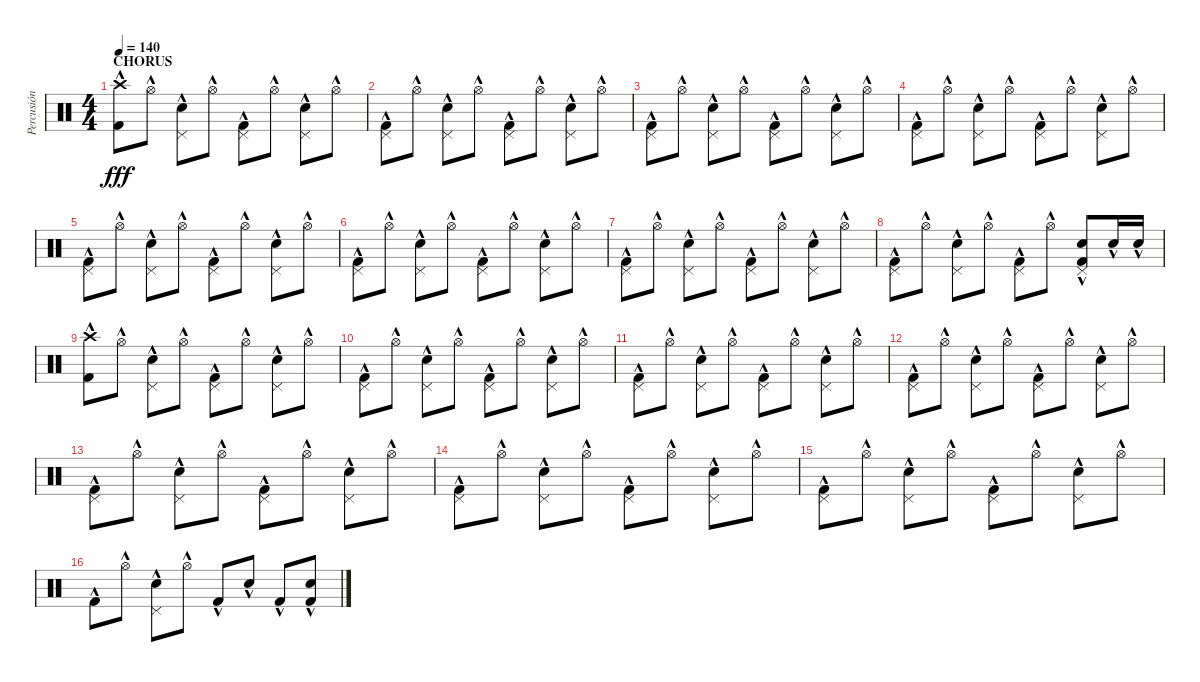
\track ("Percusión" "Percusión") {instrument percussion}
\staff {score}
\articulation defaults
\ts (4 4)
\section ("" "CHORUS")
\tempo 140
\clef neutral
\ks c
("Crash high (hit)"{hac} "Kick (hit) 2"{hac}).8{dy fff} "Hi-Hat (open)"{hac}.8 ("Snare (hit) 2"{hac} "Pedal Hi-Hat (hit)"{hac}).8 "Hi-Hat (open)"{hac}.8 ("Kick (hit) 2"{hac} "Pedal Hi-Hat (hit)"{hac}).8 "Hi-Hat (open)"{hac}.8 ("Snare (hit) 2"{hac} "Pedal Hi-Hat (hit)"{hac}).8 "Hi-Hat (open)"{hac}.8 |
("Kick (hit) 2"{hac} "Pedal Hi-Hat (hit)"{hac}).8 "Hi-Hat (open)"{hac}.8 ("Snare (hit) 2"{hac} "Pedal Hi-Hat (hit)"{hac}).8 "Hi-Hat (open)"{hac}.8 ("Kick (hit) 2"{hac} "Pedal Hi-Hat (hit)"{hac}).8 "Hi-Hat (open)"{hac}.8 ("Snare (hit) 2"{hac} "Pedal Hi-Hat (hit)"{hac}).8 "Hi-Hat (open)"{hac}.8 |
("Kick (hit) 2"{hac} "Pedal Hi-Hat (hit)"{hac}).8 "Hi-Hat (open)"{hac}.8 ("Snare (hit) 2"{hac} "Pedal Hi-Hat (hit)"{hac}).8 "Hi-Hat (open)"{hac}.8 ("Kick (hit) 2"{hac} "Pedal Hi-Hat (hit)"{hac}).8 "Hi-Hat (open)"{hac}.8 ("Snare (hit) 2"{hac} "Pedal Hi-Hat (hit)"{hac}).8 "Hi-Hat (open)"{hac}.8 |
("Kick (hit) 2"{hac} "Pedal Hi-Hat (hit)"{hac}).8 "Hi-Hat (open)"{hac}.8 ("Snare (hit) 2"{hac} "Pedal Hi-Hat (hit)"{hac}).8 "Hi-Hat (open)"{hac}.8 ("Kick (hit) 2"{hac} "Pedal Hi-Hat (hit)"{hac}).8 "Hi-Hat (open)"{hac}.8 ("Snare (hit) 2"{hac} "Pedal Hi-Hat (hit)"{hac}).8 "Hi-Hat (open)"{hac}.8 |
("Kick (hit) 2"{hac} "Pedal Hi-Hat (hit)"{hac}).8 "Hi-Hat (open)"{hac}.8 ("Snare (hit) 2"{hac} "Pedal Hi-Hat (hit)"{hac}).8 "Hi-Hat (open)"{hac}.8 ("Kick (hit) 2"{hac} "Pedal Hi-Hat (hit)"{hac}).8 "Hi-Hat (open)"{hac}.8 ("Snare (hit) 2"{hac} "Pedal Hi-Hat (hit)"{hac}).8 "Hi-Hat (open)"{hac}.8 |
("Kick (hit) 2"{hac} "Pedal Hi-Hat (hit)"{hac}).8 "Hi-Hat (open)"{hac}.8 ("Snare (hit) 2"{hac} "Pedal Hi-Hat (hit)"{hac}).8 "Hi-Hat (open)"{hac}.8 ("Kick (hit) 2"{hac} "Pedal Hi-Hat (hit)"{hac}).8 "Hi-Hat (open)"{hac}.8 ("Snare (hit) 2"{hac} "Pedal Hi-Hat (hit)"{hac}).8 "Hi-Hat (open)"{hac}.8 |
("Kick (hit) 2"{hac} "Pedal Hi-Hat (hit)"{hac}).8 "Hi-Hat (open)"{hac}.8 ("Snare (hit) 2"{hac} "Pedal Hi-Hat (hit)"{hac}).8 "Hi-Hat (open)"{hac}.8 ("Kick (hit) 2"{hac} "Pedal Hi-Hat (hit)"{hac}).8 "Hi-Hat (open)"{hac}.8 ("Snare (hit) 2"{hac} "Pedal Hi-Hat (hit)"{hac}).8 "Hi-Hat (open)"{hac}.8 |
("Kick (hit) 2"{hac} "Pedal Hi-Hat (hit)"{hac}).8 "Hi-Hat (open)"{hac}.8 ("Snare (hit) 2"{hac} "Pedal Hi-Hat (hit)"{hac}).8 "Hi-Hat (open)"{hac}.8 ("Kick (hit) 2"{hac} "Pedal Hi-Hat (hit)"{hac}).8 "Hi-Hat (open)"{hac}.8 ("Snare (hit) 2"{hac} "Kick (hit) 2"{hac} "Pedal Hi-Hat (hit)"{hac}).8 "Snare (hit) 2"{hac}.16 "Snare (hit) 2"{hac}.16 |
("Crash high (hit)"{hac} "Kick (hit) 2"{hac}).8 "Hi-Hat (open)"{hac}.8 ("Snare (hit) 2"{hac} "Pedal Hi-Hat (hit)"{hac}).8 "Hi-Hat (open)"{hac}.8 ("Kick (hit) 2"{hac} "Pedal Hi-Hat (hit)"{hac}).8 "Hi-Hat (open)"{hac}.8 ("Snare (hit) 2"{hac} "Pedal Hi-Hat (hit)"{hac}).8 "Hi-Hat (open)"{hac}.8 |
("Kick (hit) 2"{hac} "Pedal Hi-Hat (hit)"{hac}).8 "Hi-Hat (open)"{hac}.8 ("Snare (hit) 2"{hac} "Pedal Hi-Hat (hit)"{hac}).8 "Hi-Hat (open)"{hac}.8 ("Kick (hit) 2"{hac} "Pedal Hi-Hat (hit)"{hac}).8 "Hi-Hat (open)"{hac}.8 ("Snare (hit) 2"{hac} "Pedal Hi-Hat (hit)"{hac}).8 "Hi-Hat (open)"{hac}.8 |
("Kick (hit) 2"{hac} "Pedal Hi-Hat (hit)"{hac}).8 "Hi-Hat (open)"{hac}.8 ("Snare (hit) 2"{hac} "Pedal Hi-Hat (hit)"{hac}).8 "Hi-Hat (open)"{hac}.8 ("Kick (hit) 2"{hac} "Pedal Hi-Hat (hit)"{hac}).8 "Hi-Hat (open)"{hac}.8 ("Snare (hit) 2"{hac} "Pedal Hi-Hat (hit)"{hac}).8 "Hi-Hat (open)"{hac}.8 |
("Kick (hit) 2"{hac} "Pedal Hi-Hat (hit)"{hac}).8 "Hi-Hat (open)"{hac}.8 ("Snare (hit) 2"{hac} "Pedal Hi-Hat (hit)"{hac}).8 "Hi-Hat (open)"{hac}.8 ("Kick (hit) 2"{hac} "Pedal Hi-Hat (hit)"{hac}).8 "Hi-Hat (open)"{hac}.8 ("Snare (hit) 2"{hac} "Pedal Hi-Hat (hit)"{hac}).8 "Hi-Hat (open)"{hac}.8 |
("Kick (hit) 2"{hac} "Pedal Hi-Hat (hit)"{hac}).8 "Hi-Hat (open)"{hac}.8 ("Snare (hit) 2"{hac} "Pedal Hi-Hat (hit)"{hac}).8 "Hi-Hat (open)"{hac}.8 ("Kick (hit) 2"{hac} "Pedal Hi-Hat (hit)"{hac}).8 "Hi-Hat (open)"{hac}.8 ("Snare (hit) 2"{hac} "Pedal Hi-Hat (hit)"{hac}).8 "Hi-Hat (open)"{hac}.8 |
("Kick (hit) 2"{hac} "Pedal Hi-Hat (hit)"{hac}).8 "Hi-Hat (open)"{hac}.8 ("Snare (hit) 2"{hac} "Pedal Hi-Hat (hit)"{hac}).8 "Hi-Hat (open)"{hac}.8 ("Kick (hit) 2"{hac} "Pedal Hi-Hat (hit)"{hac}).8 "Hi-Hat (open)"{hac}.8 ("Snare (hit) 2"{hac} "Pedal Hi-Hat (hit)"{hac}).8 "Hi-Hat (open)"{hac}.8 |
("Kick (hit) 2"{hac} "Pedal Hi-Hat (hit)"{hac}).8 "Hi-Hat (open)"{hac}.8 ("Snare (hit) 2"{hac} "Pedal Hi-Hat (hit)"{hac}).8 "Hi-Hat (open)"{hac}.8 ("Kick (hit) 2"{hac} "Pedal Hi-Hat (hit)"{hac}).8 "Hi-Hat (open)"{hac}.8 ("Snare (hit) 2"{hac} "Pedal Hi-Hat (hit)"{hac}).8 "Hi-Hat (open)"{hac}.8 |
"Kick (hit) 2"{hac}.8 "Hi-Hat (open)"{hac}.8 ("Snare (hit) 2"{hac} "Pedal Hi-Hat (hit)"{hac}).8 "Hi-Hat (open)"{hac}.8 "Kick (hit) 2"{hac}.8 "Snare (hit) 2"{hac}.8 "Kick (hit) 2"{hac}.8 ("Snare (hit) 2"{hac} "Kick (hit) 2"{hac}).8
